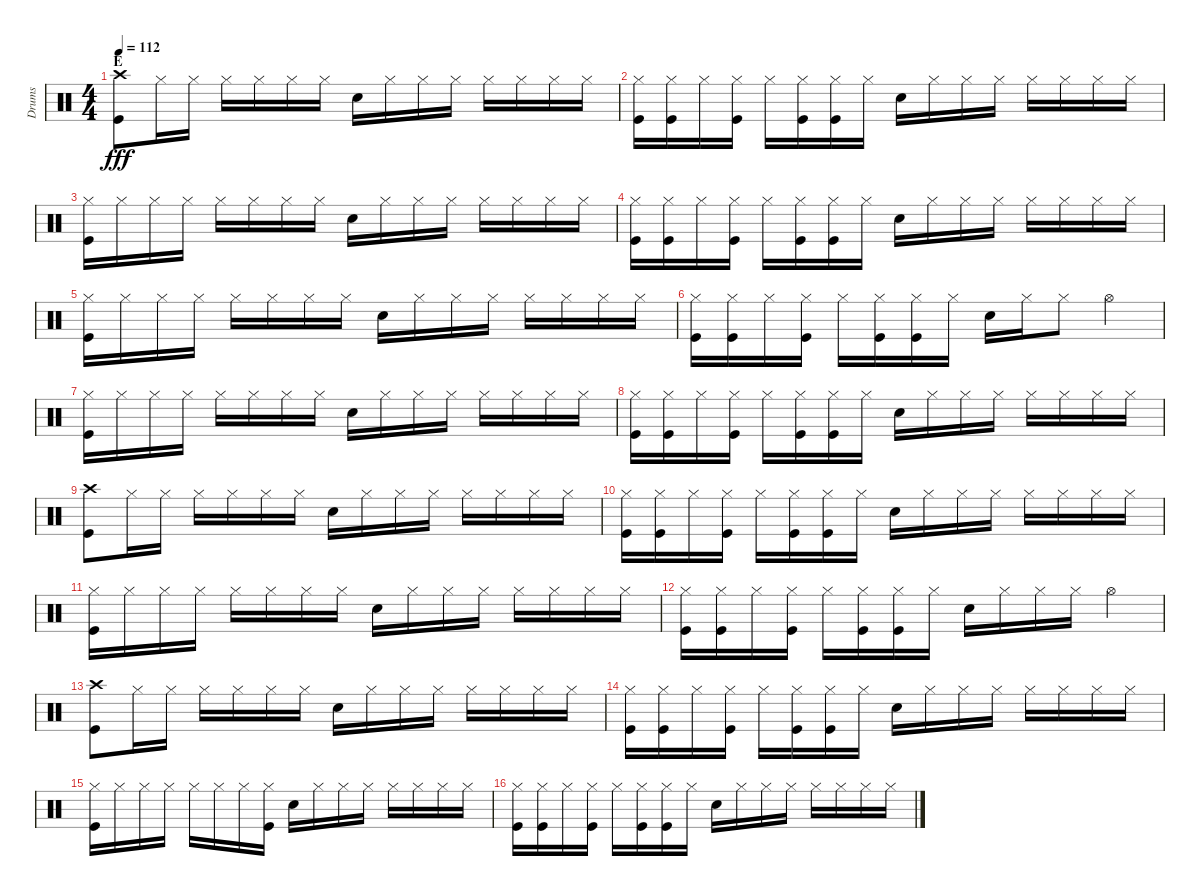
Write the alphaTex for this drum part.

\track ("Drums" "Drums") {instrument percussion}
\staff {score}
\articulation defaults
\ts (4 4)
\section ("" "E")
\tempo 112
\clef neutral
\ks c
("Crash high (hit)" "Kick (hit)").8{dy fff} "Hi-Hat (closed)".16 "Hi-Hat (closed)".16 "Hi-Hat (closed)".16 "Hi-Hat (closed)".16 "Hi-Hat (closed)".16 "Hi-Hat (closed)".16 "Snare (hit) 2".16 "Hi-Hat (closed)".16 "Hi-Hat (closed)".16 "Hi-Hat (closed)".16 "Hi-Hat (closed)".16 "Hi-Hat (closed)".16 "Hi-Hat (closed)".16 "Hi-Hat (closed)".16 |
("Hi-Hat (closed)" "Kick (hit)").16 ("Hi-Hat (closed)" "Kick (hit)").16 "Hi-Hat (closed)".16 ("Hi-Hat (closed)" "Kick (hit)").16 "Hi-Hat (closed)".16 ("Hi-Hat (closed)" "Kick (hit)").16 ("Hi-Hat (closed)" "Kick (hit)").16 "Hi-Hat (closed)".16 "Snare (hit) 2".16 "Hi-Hat (closed)".16 "Hi-Hat (closed)".16 "Hi-Hat (closed)".16 "Hi-Hat (closed)".16 "Hi-Hat (closed)".16 "Hi-Hat (closed)".16 "Hi-Hat (closed)".16 |
("Hi-Hat (closed)" "Kick (hit)").16 "Hi-Hat (closed)".16 "Hi-Hat (closed)".16 "Hi-Hat (closed)".16 "Hi-Hat (closed)".16 "Hi-Hat (closed)".16 "Hi-Hat (closed)".16 "Hi-Hat (closed)".16 "Snare (hit) 2".16 "Hi-Hat (closed)".16 "Hi-Hat (closed)".16 "Hi-Hat (closed)".16 "Hi-Hat (closed)".16 "Hi-Hat (closed)".16 "Hi-Hat (closed)".16 "Hi-Hat (closed)".16 |
("Hi-Hat (closed)" "Kick (hit)").16 ("Hi-Hat (closed)" "Kick (hit)").16 "Hi-Hat (closed)".16 ("Hi-Hat (closed)" "Kick (hit)").16 "Hi-Hat (closed)".16 ("Hi-Hat (closed)" "Kick (hit)").16 ("Hi-Hat (closed)" "Kick (hit)").16 "Hi-Hat (closed)".16 "Snare (hit) 2".16 "Hi-Hat (closed)".16 "Hi-Hat (closed)".16 "Hi-Hat (closed)".16 "Hi-Hat (closed)".16 "Hi-Hat (closed)".16 "Hi-Hat (closed)".16 "Hi-Hat (closed)".16 |
("Hi-Hat (closed)" "Kick (hit)").16 "Hi-Hat (closed)".16 "Hi-Hat (closed)".16 "Hi-Hat (closed)".16 "Hi-Hat (closed)".16 "Hi-Hat (closed)".16 "Hi-Hat (closed)".16 "Hi-Hat (closed)".16 "Snare (hit) 2".16 "Hi-Hat (closed)".16 "Hi-Hat (closed)".16 "Hi-Hat (closed)".16 "Hi-Hat (closed)".16 "Hi-Hat (closed)".16 "Hi-Hat (closed)".16 "Hi-Hat (closed)".16 |
("Hi-Hat (closed)" "Kick (hit)").16 ("Hi-Hat (closed)" "Kick (hit)").16 "Hi-Hat (closed)".16 ("Hi-Hat (closed)" "Kick (hit)").16 "Hi-Hat (closed)".16 ("Hi-Hat (closed)" "Kick (hit)").16 ("Hi-Hat (closed)" "Kick (hit)").16 "Hi-Hat (closed)".16 "Snare (hit) 2".16 "Hi-Hat (closed)".16 "Hi-Hat (closed)".8 "Hi-Hat (open)".4 |
("Hi-Hat (closed)" "Kick (hit)").16 "Hi-Hat (closed)".16 "Hi-Hat (closed)".16 "Hi-Hat (closed)".16 "Hi-Hat (closed)".16 "Hi-Hat (closed)".16 "Hi-Hat (closed)".16 "Hi-Hat (closed)".16 "Snare (hit) 2".16 "Hi-Hat (closed)".16 "Hi-Hat (closed)".16 "Hi-Hat (closed)".16 "Hi-Hat (closed)".16 "Hi-Hat (closed)".16 "Hi-Hat (closed)".16 "Hi-Hat (closed)".16 |
("Hi-Hat (closed)" "Kick (hit)").16 ("Hi-Hat (closed)" "Kick (hit)").16 "Hi-Hat (closed)".16 ("Hi-Hat (closed)" "Kick (hit)").16 "Hi-Hat (closed)".16 ("Hi-Hat (closed)" "Kick (hit)").16 ("Hi-Hat (closed)" "Kick (hit)").16 "Hi-Hat (closed)".16 "Snare (hit) 2".16 "Hi-Hat (closed)".16 "Hi-Hat (closed)".16 "Hi-Hat (closed)".16 "Hi-Hat (closed)".16 "Hi-Hat (closed)".16 "Hi-Hat (closed)".16 "Hi-Hat (closed)".16 |
("Crash high (hit)" "Kick (hit)").8 "Hi-Hat (closed)".16 "Hi-Hat (closed)".16 "Hi-Hat (closed)".16 "Hi-Hat (closed)".16 "Hi-Hat (closed)".16 "Hi-Hat (closed)".16 "Snare (hit) 2".16 "Hi-Hat (closed)".16 "Hi-Hat (closed)".16 "Hi-Hat (closed)".16 "Hi-Hat (closed)".16 "Hi-Hat (closed)".16 "Hi-Hat (closed)".16 "Hi-Hat (closed)".16 |
("Hi-Hat (closed)" "Kick (hit)").16 ("Hi-Hat (closed)" "Kick (hit)").16 "Hi-Hat (closed)".16 ("Hi-Hat (closed)" "Kick (hit)").16 "Hi-Hat (closed)".16 ("Hi-Hat (closed)" "Kick (hit)").16 ("Hi-Hat (closed)" "Kick (hit)").16 "Hi-Hat (closed)".16 "Snare (hit) 2".16 "Hi-Hat (closed)".16 "Hi-Hat (closed)".16 "Hi-Hat (closed)".16 "Hi-Hat (closed)".16 "Hi-Hat (closed)".16 "Hi-Hat (closed)".16 "Hi-Hat (closed)".16 |
("Hi-Hat (closed)" "Kick (hit)").16 "Hi-Hat (closed)".16 "Hi-Hat (closed)".16 "Hi-Hat (closed)".16 "Hi-Hat (closed)".16 "Hi-Hat (closed)".16 "Hi-Hat (closed)".16 "Hi-Hat (closed)".16 "Snare (hit) 2".16 "Hi-Hat (closed)".16 "Hi-Hat (closed)".16 "Hi-Hat (closed)".16 "Hi-Hat (closed)".16 "Hi-Hat (closed)".16 "Hi-Hat (closed)".16 "Hi-Hat (closed)".16 |
("Hi-Hat (closed)" "Kick (hit)").16 ("Hi-Hat (closed)" "Kick (hit)").16 "Hi-Hat (closed)".16 ("Hi-Hat (closed)" "Kick (hit)").16 "Hi-Hat (closed)".16 ("Hi-Hat (closed)" "Kick (hit)").16 ("Hi-Hat (closed)" "Kick (hit)").16 "Hi-Hat (closed)".16 "Snare (hit) 2".16 "Hi-Hat (closed)".16 "Hi-Hat (closed)".16 "Hi-Hat (closed)".16 "Hi-Hat (open)".4 |
("Crash high (hit)" "Kick (hit)").8 "Hi-Hat (closed)".16 "Hi-Hat (closed)".16 "Hi-Hat (closed)".16 "Hi-Hat (closed)".16 "Hi-Hat (closed)".16 "Hi-Hat (closed)".16 "Snare (hit) 2".16 "Hi-Hat (closed)".16 "Hi-Hat (closed)".16 "Hi-Hat (closed)".16 "Hi-Hat (closed)".16 "Hi-Hat (closed)".16 "Hi-Hat (closed)".16 "Hi-Hat (closed)".16 |
("Hi-Hat (closed)" "Kick (hit)").16 ("Hi-Hat (closed)" "Kick (hit)").16 "Hi-Hat (closed)".16 ("Hi-Hat (closed)" "Kick (hit)").16 "Hi-Hat (closed)".16 ("Hi-Hat (closed)" "Kick (hit)").16 ("Hi-Hat (closed)" "Kick (hit)").16 "Hi-Hat (closed)".16 "Snare (hit) 2".16 "Hi-Hat (closed)".16 "Hi-Hat (closed)".16 "Hi-Hat (closed)".16 "Hi-Hat (closed)".16 "Hi-Hat (closed)".16 "Hi-Hat (closed)".16 "Hi-Hat (closed)".16 |
("Hi-Hat (closed)" "Kick (hit)").16 "Hi-Hat (closed)".16 "Hi-Hat (closed)".16 "Hi-Hat (closed)".16 "Hi-Hat (closed)".16 "Hi-Hat (closed)".16 "Hi-Hat (closed)".16 ("Hi-Hat (closed)" "Kick (hit)").16 "Snare (hit) 2".16 "Hi-Hat (closed)".16 "Hi-Hat (closed)".16 "Hi-Hat (closed)".16 "Hi-Hat (closed)".16 "Hi-Hat (closed)".16 "Hi-Hat (closed)".16 "Hi-Hat (closed)".16 |
("Hi-Hat (closed)" "Kick (hit)").16 ("Hi-Hat (closed)" "Kick (hit)").16 "Hi-Hat (closed)".16 ("Hi-Hat (closed)" "Kick (hit)").16 "Hi-Hat (closed)".16 ("Hi-Hat (closed)" "Kick (hit)").16 ("Hi-Hat (closed)" "Kick (hit)").16 "Hi-Hat (closed)".16 "Snare (hit) 2".16 "Hi-Hat (closed)".16 "Hi-Hat (closed)".16 "Hi-Hat (closed)".16 "Hi-Hat (closed)".16 "Hi-Hat (closed)".16 "Hi-Hat (closed)".16 "Hi-Hat (closed)".16
